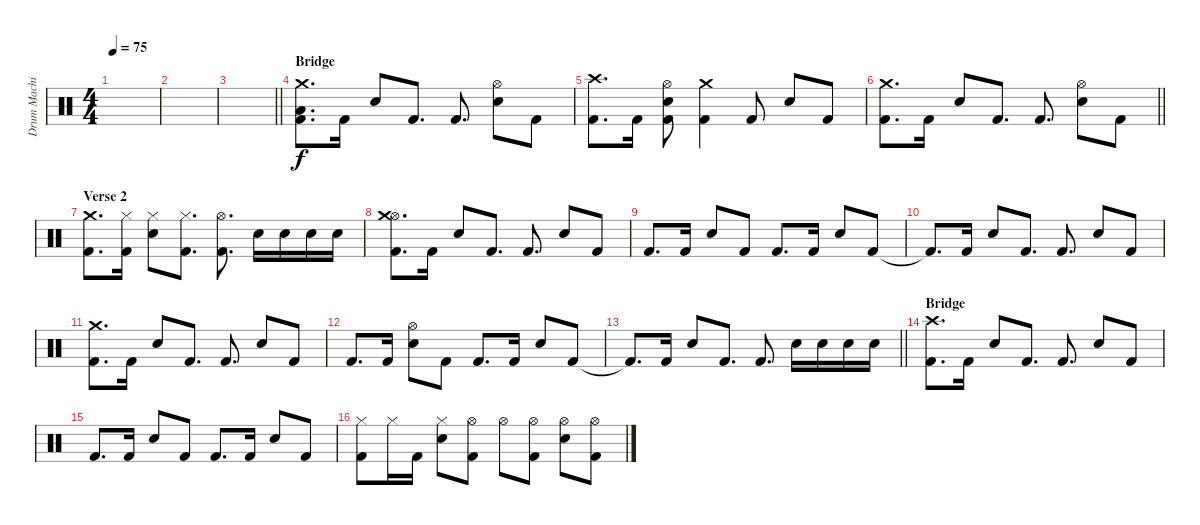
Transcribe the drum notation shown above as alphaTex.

\track ("Drum Machine" "Drum Machi") {mute instrument percussion}
\staff {score}
\articulation defaults
\ts (4 4)
\tempo 75
\clef neutral
\ks c
|
|
\barLineRight lightlight
|
\section ("" "Bridge")
("Kick (hit) 2" "Low Floor Tom (hit)" "Crash medium (hit)").8{d} "Kick (hit) 2".16 "Electric Snare (hit)".8 "Kick (hit) 2".8{d} "Kick (hit) 2".8{d} ("Electric Snare (hit)" "Hi-Hat (open)").8 "Kick (hit) 2".8 |
("Kick (hit) 2" "Crash high (hit)").8{d} "Kick (hit) 2".16 ("Kick (hit) 2" "Electric Snare (hit)" "Hi-Hat (open)").8 ("Kick (hit) 2" "Crash medium (hit)").4 "Kick (hit) 2".8 "Electric Snare (hit)".8 "Kick (hit) 2".8 |
\barLineRight lightlight
("Kick (hit) 2" "Crash medium (hit)").8{d} "Kick (hit) 2".16 "Electric Snare (hit)".8 "Kick (hit) 2".8{d} "Kick (hit) 2".8{d} ("Electric Snare (hit)" "Hi-Hat (open)").8 "Kick (hit) 2".8 |
\section ("" "Verse 2")
("Kick (hit) 2" "Crash medium (hit)").8{d} ("Kick (hit) 2" "Hi-Hat (closed)").16 ("Electric Snare (hit)" "Hi-Hat (closed)").8 ("Kick (hit) 2" "Hi-Hat (closed)").8{d} ("Kick (hit) 2" "Hi-Hat (open)").8{d} "Electric Snare (hit)".16 "Electric Snare (hit)".16 "Electric Snare (hit)".16 "Electric Snare (hit)".16 |
("Kick (hit) 2" "Hi-Hat (open)" "Crash medium (hit)").8{d} "Kick (hit) 2".16 "Electric Snare (hit)".8 "Kick (hit) 2".8{d} "Kick (hit) 2".8{d} "Electric Snare (hit)".8 "Kick (hit) 2".8 |
"Kick (hit) 2".8{d} "Kick (hit) 2".16 "Electric Snare (hit)".8 "Kick (hit) 2".8 "Kick (hit) 2".8{d} "Kick (hit) 2".16 "Electric Snare (hit)".8 "Kick (hit) 2".8 |
"Kick (hit) 2"{t}.8{d} "Kick (hit) 2".16 "Electric Snare (hit)".8 "Kick (hit) 2".8{d} "Kick (hit) 2".8{d} "Electric Snare (hit)".8 "Kick (hit) 2".8 |
("Kick (hit) 2" "Crash medium (hit)").8{d} "Kick (hit) 2".16 "Electric Snare (hit)".8 "Kick (hit) 2".8{d} "Kick (hit) 2".8{d} "Electric Snare (hit)".8 "Kick (hit) 2".8 |
"Kick (hit) 2".8{d} "Kick (hit) 2".16 ("Electric Snare (hit)" "Hi-Hat (open)").8 "Kick (hit) 2".8 "Kick (hit) 2".8{d} "Kick (hit) 2".16 "Electric Snare (hit)".8 "Kick (hit) 2".8 |
\barLineRight lightlight "Kick (hit) 2"{t}.8{d} "Kick (hit) 2".16 "Electric Snare (hit)".8 "Kick (hit) 2".8{d} "Kick (hit) 2".8{d} "Electric Snare (hit)".16 "Electric Snare (hit)".16 "Electric Snare (hit)".16 "Electric Snare (hit)".16
|
\section ("" "Bridge")
("Kick (hit) 2" "Crash high (hit)").8{d} "Kick (hit) 2".16 "Electric Snare (hit)".8 "Kick (hit) 2".8{d} "Kick (hit) 2".8{d} "Electric Snare (hit)".8 "Kick (hit) 2".8 |
"Kick (hit) 2".8{d} "Kick (hit) 2".16 "Electric Snare (hit)".8 "Kick (hit) 2".8 "Kick (hit) 2".8{d} "Kick (hit) 2".16 "Electric Snare (hit)".8 "Kick (hit) 2".8 |
("Kick (hit) 2" "Hi-Hat (closed)").8 "Hi-Hat (closed)".16 "Kick (hit) 2".16 ("Electric Snare (hit)" "Hi-Hat (closed)").8 ("Kick (hit) 2" "Hi-Hat (open)").8 "Hi-Hat (open)".8 ("Kick (hit) 2" "Hi-Hat (open)").8 ("Electric Snare (hit)" "Hi-Hat (open)").8 ("Kick (hit) 2" "Hi-Hat (open)").8
